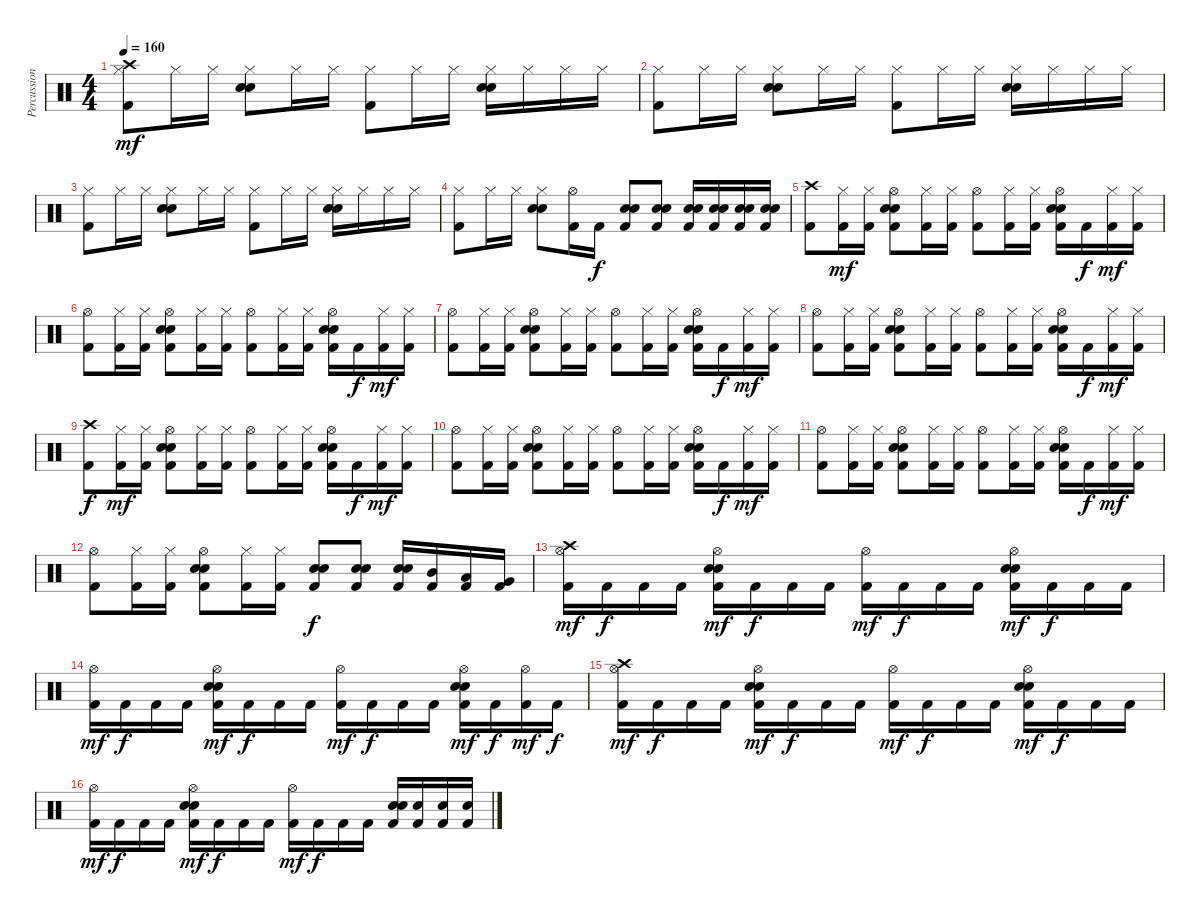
\track ("Percussion" "Percussion") {instrument percussion}
\staff {score}
\articulation defaults
\ts (4 4)
\section ("" "")
\tempo 160
\clef neutral
\ks c
("Crash high (hit)" "Hi-Hat (closed)" "Kick (hit) 2").8{dy mf} "Hi-Hat (closed)".16 "Hi-Hat (closed)".16 ("Hi-Hat (closed)" "Electric Snare (hit)" "Snare (hit) 2").8 "Hi-Hat (closed)".16 "Hi-Hat (closed)".16 ("Hi-Hat (closed)" "Kick (hit) 2").8 "Hi-Hat (closed)".16 "Hi-Hat (closed)".16 ("Hi-Hat (closed)" "Electric Snare (hit)" "Snare (hit) 2").16 "Hi-Hat (closed)".16 "Hi-Hat (closed)".16 "Hi-Hat (closed)".16 |
("Hi-Hat (closed)" "Kick (hit) 2").8 "Hi-Hat (closed)".16 "Hi-Hat (closed)".16 ("Hi-Hat (closed)" "Electric Snare (hit)" "Snare (hit) 2").8 "Hi-Hat (closed)".16 "Hi-Hat (closed)".16 ("Hi-Hat (closed)" "Kick (hit) 2").8 "Hi-Hat (closed)".16 "Hi-Hat (closed)".16 ("Hi-Hat (closed)" "Electric Snare (hit)" "Snare (hit) 2").16 "Hi-Hat (closed)".16 "Hi-Hat (closed)".16 "Hi-Hat (closed)".16 |
("Hi-Hat (closed)" "Kick (hit) 2").8 "Hi-Hat (closed)".16 "Hi-Hat (closed)".16 ("Hi-Hat (closed)" "Electric Snare (hit)" "Snare (hit) 2").8 "Hi-Hat (closed)".16 "Hi-Hat (closed)".16 ("Hi-Hat (closed)" "Kick (hit) 2").8 "Hi-Hat (closed)".16 "Hi-Hat (closed)".16 ("Hi-Hat (closed)" "Electric Snare (hit)" "Snare (hit) 2").16 "Hi-Hat (closed)".16 "Hi-Hat (closed)".16 "Hi-Hat (closed)".16 |
("Hi-Hat (closed)" "Kick (hit) 2").8 "Hi-Hat (closed)".16 "Hi-Hat (closed)".16 ("Hi-Hat (closed)" "Electric Snare (hit)" "Snare (hit) 2").8 ("Hi-Hat (open)" "Kick (hit) 2").16 "Kick (hit) 2".16{dy f} ("Electric Snare (hit)" "Snare (hit) 2" "Kick (hit) 2").8 ("Electric Snare (hit)" "Snare (hit) 2" "Kick (hit) 2").8 ("Electric Snare (hit)" "Snare (hit) 2" "Kick (hit) 2").16 ("Electric Snare (hit)" "Snare (hit) 2" "Kick (hit) 2").16 ("Electric Snare (hit)" "Snare (hit) 2" "Kick (hit) 2").16 ("Electric Snare (hit)" "Snare (hit) 2" "Kick (hit) 2").16 |
\section ("" "")
("Crash high (hit)" "Kick (hit) 2").8 ("Hi-Hat (closed)" "Kick (hit) 2").16{dy mf} ("Hi-Hat (closed)" "Kick (hit) 2").16 ("Hi-Hat (open)" "Electric Snare (hit)" "Snare (hit) 2" "Kick (hit) 2").8 ("Hi-Hat (closed)" "Kick (hit) 2").16 ("Hi-Hat (closed)" "Kick (hit) 2").16 ("Hi-Hat (open)" "Kick (hit) 2").8 ("Hi-Hat (closed)" "Kick (hit) 2").16 ("Hi-Hat (closed)" "Kick (hit) 2").16 ("Hi-Hat (open)" "Electric Snare (hit)" "Snare (hit) 2" "Kick (hit) 2").16 "Kick (hit) 2".16{dy f} ("Hi-Hat (closed)" "Kick (hit) 2").16{dy mf} ("Hi-Hat (closed)" "Kick (hit) 2").16 |
("Hi-Hat (open)" "Kick (hit) 2").8 ("Hi-Hat (closed)" "Kick (hit) 2").16 ("Hi-Hat (closed)" "Kick (hit) 2").16 ("Hi-Hat (open)" "Electric Snare (hit)" "Snare (hit) 2" "Kick (hit) 2").8 ("Hi-Hat (closed)" "Kick (hit) 2").16 ("Hi-Hat (closed)" "Kick (hit) 2").16 ("Hi-Hat (open)" "Kick (hit) 2").8 ("Hi-Hat (closed)" "Kick (hit) 2").16 ("Hi-Hat (closed)" "Kick (hit) 2").16 ("Hi-Hat (open)" "Electric Snare (hit)" "Snare (hit) 2" "Kick (hit) 2").16 "Kick (hit) 2".16{dy f} ("Hi-Hat (closed)" "Kick (hit) 2").16{dy mf} ("Hi-Hat (closed)" "Kick (hit) 2").16 |
("Hi-Hat (open)" "Kick (hit) 2").8 ("Hi-Hat (closed)" "Kick (hit) 2").16 ("Hi-Hat (closed)" "Kick (hit) 2").16 ("Hi-Hat (open)" "Electric Snare (hit)" "Snare (hit) 2" "Kick (hit) 2").8 ("Hi-Hat (closed)" "Kick (hit) 2").16 ("Hi-Hat (closed)" "Kick (hit) 2").16 ("Hi-Hat (open)" "Kick (hit) 2").8 ("Hi-Hat (closed)" "Kick (hit) 2").16 ("Hi-Hat (closed)" "Kick (hit) 2").16 ("Hi-Hat (open)" "Electric Snare (hit)" "Snare (hit) 2" "Kick (hit) 2").16 "Kick (hit) 2".16{dy f} ("Hi-Hat (closed)" "Kick (hit) 2").16{dy mf} ("Hi-Hat (closed)" "Kick (hit) 2").16 |
("Hi-Hat (open)" "Kick (hit) 2").8 ("Hi-Hat (closed)" "Kick (hit) 2").16 ("Hi-Hat (closed)" "Kick (hit) 2").16 ("Hi-Hat (open)" "Electric Snare (hit)" "Snare (hit) 2" "Kick (hit) 2").8 ("Hi-Hat (closed)" "Kick (hit) 2").16 ("Hi-Hat (closed)" "Kick (hit) 2").16 ("Hi-Hat (open)" "Kick (hit) 2").8 ("Hi-Hat (closed)" "Kick (hit) 2").16 ("Hi-Hat (closed)" "Kick (hit) 2").16 ("Hi-Hat (open)" "Electric Snare (hit)" "Snare (hit) 2" "Kick (hit) 2").16 "Kick (hit) 2".16{dy f} ("Hi-Hat (closed)" "Kick (hit) 2").16{dy mf} ("Hi-Hat (closed)" "Kick (hit) 2").16 |
("Crash high (hit)" "Kick (hit) 2").8{dy f} ("Hi-Hat (closed)" "Kick (hit) 2").16{dy mf} ("Hi-Hat (closed)" "Kick (hit) 2").16 ("Hi-Hat (open)" "Electric Snare (hit)" "Snare (hit) 2" "Kick (hit) 2").8 ("Hi-Hat (closed)" "Kick (hit) 2").16 ("Hi-Hat (closed)" "Kick (hit) 2").16 ("Hi-Hat (open)" "Kick (hit) 2").8 ("Hi-Hat (closed)" "Kick (hit) 2").16 ("Hi-Hat (closed)" "Kick (hit) 2").16 ("Hi-Hat (open)" "Electric Snare (hit)" "Snare (hit) 2" "Kick (hit) 2").16 "Kick (hit) 2".16{dy f} ("Hi-Hat (closed)" "Kick (hit) 2").16{dy mf} ("Hi-Hat (closed)" "Kick (hit) 2").16 |
("Hi-Hat (open)" "Kick (hit) 2").8 ("Hi-Hat (closed)" "Kick (hit) 2").16 ("Hi-Hat (closed)" "Kick (hit) 2").16 ("Hi-Hat (open)" "Electric Snare (hit)" "Snare (hit) 2" "Kick (hit) 2").8 ("Hi-Hat (closed)" "Kick (hit) 2").16 ("Hi-Hat (closed)" "Kick (hit) 2").16 ("Hi-Hat (open)" "Kick (hit) 2").8 ("Hi-Hat (closed)" "Kick (hit) 2").16 ("Hi-Hat (closed)" "Kick (hit) 2").16 ("Hi-Hat (open)" "Electric Snare (hit)" "Snare (hit) 2" "Kick (hit) 2").16 "Kick (hit) 2".16{dy f} ("Hi-Hat (closed)" "Kick (hit) 2").16{dy mf} ("Hi-Hat (closed)" "Kick (hit) 2").16 |
("Hi-Hat (open)" "Kick (hit) 2").8 ("Hi-Hat (closed)" "Kick (hit) 2").16 ("Hi-Hat (closed)" "Kick (hit) 2").16 ("Hi-Hat (open)" "Electric Snare (hit)" "Snare (hit) 2" "Kick (hit) 2").8 ("Hi-Hat (closed)" "Kick (hit) 2").16 ("Hi-Hat (closed)" "Kick (hit) 2").16 ("Hi-Hat (open)" "Kick (hit) 2").8 ("Hi-Hat (closed)" "Kick (hit) 2").16 ("Hi-Hat (closed)" "Kick (hit) 2").16 ("Hi-Hat (open)" "Electric Snare (hit)" "Snare (hit) 2" "Kick (hit) 2").16 "Kick (hit) 2".16{dy f} ("Hi-Hat (closed)" "Kick (hit) 2").16{dy mf} ("Hi-Hat (closed)" "Kick (hit) 2").16 |
("Hi-Hat (open)" "Kick (hit) 2").8 ("Hi-Hat (closed)" "Kick (hit) 2").16 ("Hi-Hat (closed)" "Kick (hit) 2").16 ("Hi-Hat (open)" "Electric Snare (hit)" "Snare (hit) 2" "Kick (hit) 2").8 ("Hi-Hat (closed)" "Kick (hit) 2").16 ("Hi-Hat (closed)" "Kick (hit) 2").16 ("Electric Snare (hit)" "Snare (hit) 2" "Kick (hit) 2").8{dy f} ("Electric Snare (hit)" "Snare (hit) 2" "Kick (hit) 2").8 ("Electric Snare (hit)" "Snare (hit) 2" "Kick (hit) 2").16 ("Mid Tom (hit)" "Kick (hit) 2").16 ("Low Tom (hit)" "Kick (hit) 2").16 ("Very Low Tom (hit)" "Kick (hit) 2").16 |
\section ("" "")
("Crash high (hit)" "Hi-Hat (open)" "Kick (hit) 2").16{dy mf} "Kick (hit) 2".16{dy f} "Kick (hit) 2".16 "Kick (hit) 2".16 ("Hi-Hat (open)" "Electric Snare (hit)" "Snare (hit) 2" "Kick (hit) 2").16{dy mf} "Kick (hit) 2".16{dy f} "Kick (hit) 2".16 "Kick (hit) 2".16 ("Hi-Hat (open)" "Kick (hit) 2").16{dy mf} "Kick (hit) 2".16{dy f} "Kick (hit) 2".16 "Kick (hit) 2".16 ("Hi-Hat (open)" "Electric Snare (hit)" "Snare (hit) 2" "Kick (hit) 2").16{dy mf} "Kick (hit) 2".16{dy f} "Kick (hit) 2".16 "Kick (hit) 2".16 |
("Hi-Hat (open)" "Kick (hit) 2").16{dy mf} "Kick (hit) 2".16{dy f} "Kick (hit) 2".16 "Kick (hit) 2".16 ("Hi-Hat (open)" "Electric Snare (hit)" "Snare (hit) 2" "Kick (hit) 2").16{dy mf} "Kick (hit) 2".16{dy f} "Kick (hit) 2".16 "Kick (hit) 2".16 ("Hi-Hat (open)" "Kick (hit) 2").16{dy mf} "Kick (hit) 2".16{dy f} "Kick (hit) 2".16 "Kick (hit) 2".16 ("Hi-Hat (open)" "Electric Snare (hit)" "Snare (hit) 2" "Kick (hit) 2").16{dy mf} "Kick (hit) 2".16{dy f} ("Hi-Hat (open)" "Kick (hit) 2").16{dy mf} "Kick (hit) 2".16{dy f} |
("Crash high (hit)" "Hi-Hat (open)" "Kick (hit) 2").16{dy mf} "Kick (hit) 2".16{dy f} "Kick (hit) 2".16 "Kick (hit) 2".16 ("Hi-Hat (open)" "Electric Snare (hit)" "Snare (hit) 2" "Kick (hit) 2").16{dy mf} "Kick (hit) 2".16{dy f} "Kick (hit) 2".16 "Kick (hit) 2".16 ("Hi-Hat (open)" "Kick (hit) 2").16{dy mf} "Kick (hit) 2".16{dy f} "Kick (hit) 2".16 "Kick (hit) 2".16 ("Hi-Hat (open)" "Electric Snare (hit)" "Snare (hit) 2" "Kick (hit) 2").16{dy mf} "Kick (hit) 2".16{dy f} "Kick (hit) 2".16 "Kick (hit) 2".16 |
("Hi-Hat (open)" "Kick (hit) 2").16{dy mf} "Kick (hit) 2".16{dy f} "Kick (hit) 2".16 "Kick (hit) 2".16 ("Hi-Hat (open)" "Electric Snare (hit)" "Snare (hit) 2" "Kick (hit) 2").16{dy mf} "Kick (hit) 2".16{dy f} "Kick (hit) 2".16 "Kick (hit) 2".16 ("Hi-Hat (open)" "Kick (hit) 2").16{dy mf} "Kick (hit) 2".16{dy f} "Kick (hit) 2".16 "Kick (hit) 2".16 ("Electric Snare (hit)" "Snare (hit) 2" "Kick (hit) 2").16 ("Snare (hit) 2" "Kick (hit) 2").16 ("Snare (hit) 2" "Kick (hit) 2").16 ("Snare (hit) 2" "Kick (hit) 2").16
